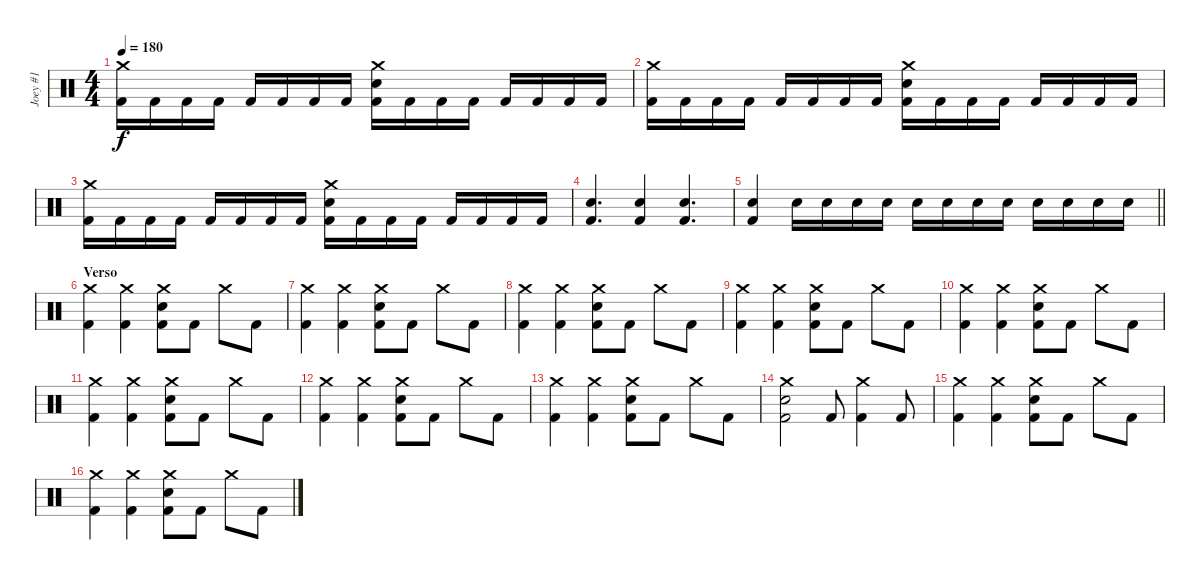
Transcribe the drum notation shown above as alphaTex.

\track ("Joey #1" "Joey #1") {instrument percussion}
\staff {score}
\articulation defaults
\ts (4 4)
\tempo 180
\clef neutral
\ks c
("Crash medium (hit)" "Kick (hit) 2").16{dy f} "Kick (hit) 2".16 "Kick (hit) 2".16 "Kick (hit) 2".16 "Kick (hit) 2".16 "Kick (hit) 2".16 "Kick (hit) 2".16 "Kick (hit) 2".16 ("Crash medium (hit)" "Electric Snare (hit)" "Kick (hit) 2").16 "Kick (hit) 2".16 "Kick (hit) 2".16 "Kick (hit) 2".16 "Kick (hit) 2".16 "Kick (hit) 2".16 "Kick (hit) 2".16 "Kick (hit) 2".16 |
("Crash medium (hit)" "Kick (hit) 2").16 "Kick (hit) 2".16 "Kick (hit) 2".16 "Kick (hit) 2".16 "Kick (hit) 2".16 "Kick (hit) 2".16 "Kick (hit) 2".16 "Kick (hit) 2".16 ("Crash medium (hit)" "Electric Snare (hit)" "Kick (hit) 2").16 "Kick (hit) 2".16 "Kick (hit) 2".16 "Kick (hit) 2".16 "Kick (hit) 2".16 "Kick (hit) 2".16 "Kick (hit) 2".16 "Kick (hit) 2".16 |
("Crash medium (hit)" "Kick (hit) 2").16 "Kick (hit) 2".16 "Kick (hit) 2".16 "Kick (hit) 2".16 "Kick (hit) 2".16 "Kick (hit) 2".16 "Kick (hit) 2".16 "Kick (hit) 2".16 ("Crash medium (hit)" "Electric Snare (hit)" "Kick (hit) 2").16 "Kick (hit) 2".16 "Kick (hit) 2".16 "Kick (hit) 2".16 "Kick (hit) 2".16 "Kick (hit) 2".16 "Kick (hit) 2".16 "Kick (hit) 2".16 |
("Electric Snare (hit)" "Kick (hit) 2").4{d} ("Electric Snare (hit)" "Kick (hit) 2").4 ("Electric Snare (hit)" "Kick (hit) 2").4{d} |
\barLineRight lightlight
("Electric Snare (hit)" "Kick (hit) 2").4 "Electric Snare (hit)".16 "Electric Snare (hit)".16 "Electric Snare (hit)".16 "Electric Snare (hit)".16 "Electric Snare (hit)".16 "Electric Snare (hit)".16 "Electric Snare (hit)".16 "Electric Snare (hit)".16 "Electric Snare (hit)".16 "Electric Snare (hit)".16 "Electric Snare (hit)".16 "Electric Snare (hit)".16 |
\section ("" "Verso")
("Crash medium (hit)" "Kick (hit) 2").4 ("Crash medium (hit)" "Kick (hit) 2").4 ("Crash medium (hit)" "Electric Snare (hit)" "Kick (hit) 2").8 "Kick (hit) 2".8 "Crash medium (hit)".8 "Kick (hit) 2".8 |
("Crash medium (hit)" "Kick (hit) 2").4 ("Crash medium (hit)" "Kick (hit) 2").4 ("Crash medium (hit)" "Electric Snare (hit)" "Kick (hit) 2").8 "Kick (hit) 2".8 "Crash medium (hit)".8 "Kick (hit) 2".8 |
("Crash medium (hit)" "Kick (hit) 2").4 ("Crash medium (hit)" "Kick (hit) 2").4 ("Crash medium (hit)" "Electric Snare (hit)" "Kick (hit) 2").8 "Kick (hit) 2".8 "Crash medium (hit)".8 "Kick (hit) 2".8 |
("Crash medium (hit)" "Kick (hit) 2").4 ("Crash medium (hit)" "Kick (hit) 2").4 ("Crash medium (hit)" "Electric Snare (hit)" "Kick (hit) 2").8 "Kick (hit) 2".8 "Crash medium (hit)".8 "Kick (hit) 2".8 |
("Crash medium (hit)" "Kick (hit) 2").4 ("Crash medium (hit)" "Kick (hit) 2").4 ("Crash medium (hit)" "Electric Snare (hit)" "Kick (hit) 2").8 "Kick (hit) 2".8 "Crash medium (hit)".8 "Kick (hit) 2".8 |
("Crash medium (hit)" "Kick (hit) 2").4 ("Crash medium (hit)" "Kick (hit) 2").4 ("Crash medium (hit)" "Electric Snare (hit)" "Kick (hit) 2").8 "Kick (hit) 2".8 "Crash medium (hit)".8 "Kick (hit) 2".8 |
("Crash medium (hit)" "Kick (hit) 2").4 ("Crash medium (hit)" "Kick (hit) 2").4 ("Crash medium (hit)" "Electric Snare (hit)" "Kick (hit) 2").8 "Kick (hit) 2".8 "Crash medium (hit)".8 "Kick (hit) 2".8 |
("Crash medium (hit)" "Kick (hit) 2").4 ("Crash medium (hit)" "Kick (hit) 2").4 ("Crash medium (hit)" "Electric Snare (hit)" "Kick (hit) 2").8 "Kick (hit) 2".8 "Crash medium (hit)".8 "Kick (hit) 2".8 |
("Crash medium (hit)" "Electric Snare (hit)" "Kick (hit) 2").2 "Kick (hit) 2".8 ("Crash medium (hit)" "Kick (hit) 2").4 "Kick (hit) 2".8 |
("Crash medium (hit)" "Kick (hit) 2").4 ("Crash medium (hit)" "Kick (hit) 2").4 ("Crash medium (hit)" "Electric Snare (hit)" "Kick (hit) 2").8 "Kick (hit) 2".8 "Crash medium (hit)".8 "Kick (hit) 2".8 |
("Crash medium (hit)" "Kick (hit) 2").4 ("Crash medium (hit)" "Kick (hit) 2").4 ("Crash medium (hit)" "Electric Snare (hit)" "Kick (hit) 2").8 "Kick (hit) 2".8 "Crash medium (hit)".8 "Kick (hit) 2".8
